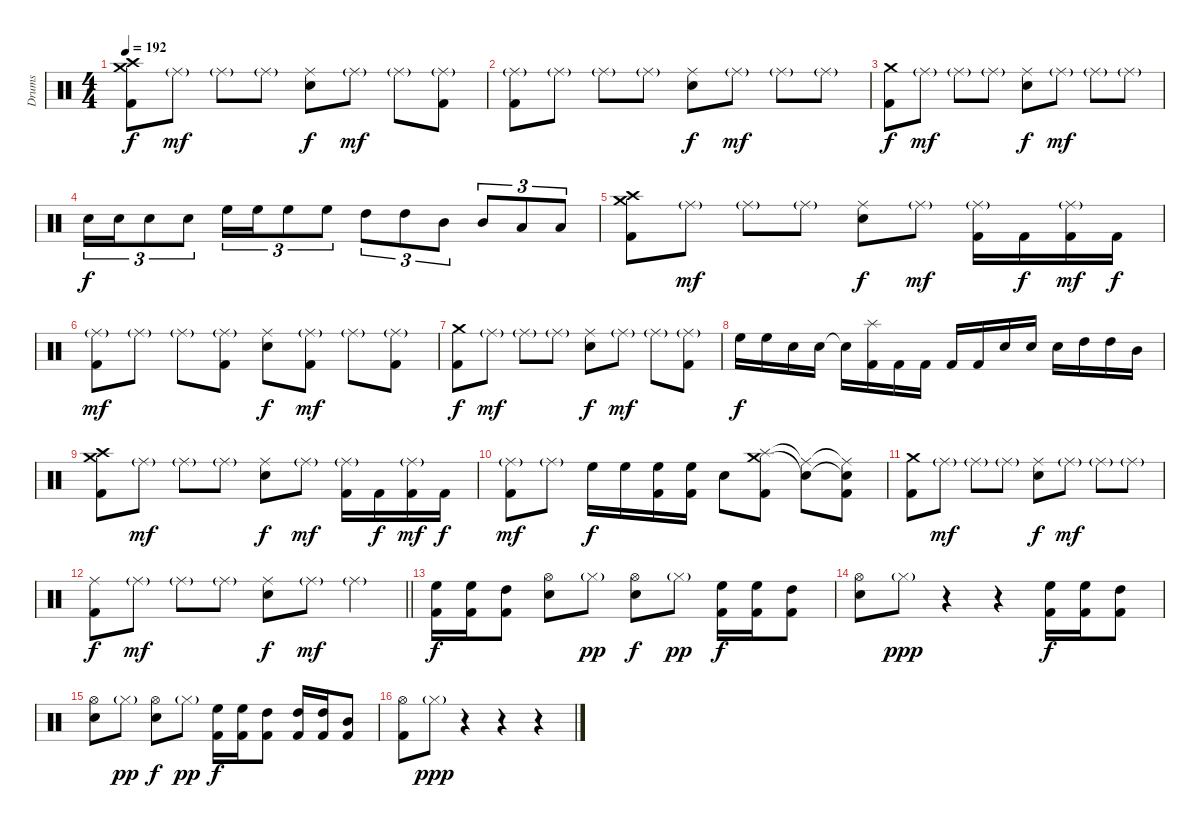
\track ("Drums" "Drums") {instrument percussion}
\staff {score}
\articulation defaults
\ts (4 4)
\tempo 192
\clef neutral
\ks c
("Crash high (hit)" "Crash medium (hit)" "Kick (hit) 2").8{dy f} "Ride (middle)"{g}.8{dy mf} "Ride (middle)"{g}.8 "Ride (middle)"{g}.8 ("Ride (middle)" "Electric Snare (hit)").8{dy f} "Ride (middle)"{g}.8{dy mf} "Ride (middle)"{g}.8 ("Ride (middle)"{g} "Kick (hit) 2").8 |
("Ride (middle)"{g} "Kick (hit) 2").8 "Ride (middle)"{g}.8 "Ride (middle)"{g}.8 "Ride (middle)"{g}.8 ("Ride (middle)" "Electric Snare (hit)").8{dy f} "Ride (middle)"{g}.8{dy mf} "Ride (middle)"{g}.8 "Ride (middle)"{g}.8 |
("Crash medium (hit)" "Kick (hit) 2").8{dy f} "Ride (middle)"{g}.8{dy mf} "Ride (middle)"{g}.8 "Ride (middle)"{g}.8 ("Ride (middle)" "Electric Snare (hit)").8{dy f} "Ride (middle)"{g}.8{dy mf} "Ride (middle)"{g}.8 "Ride (middle)"{g}.8 |
"Electric Snare (hit)".16{tu (3 2) dy f} "Electric Snare (hit)".16{tu (3 2)} "Electric Snare (hit)".8{tu (3 2)} "Electric Snare (hit)".8{tu (3 2)} "High Floor Tom (hit)".16{tu (3 2)} "High Floor Tom (hit)".16{tu (3 2)} "High Floor Tom (hit)".8{tu (3 2)} "High Floor Tom (hit)".8{tu (3 2)} "High Tom (hit)".8{tu (3 2)} "High Tom (hit)".8{tu (3 2)} "Mid Tom (hit)".8{tu (3 2)} "Mid Tom (hit)".8{tu (3 2)} "Low Tom (hit)".8{tu (3 2)} "Low Tom (hit)".8{tu (3 2)} |
("Crash high (hit)" "Crash medium (hit)" "Kick (hit) 2").8 "Ride (middle)"{g}.8{dy mf} "Ride (middle)"{g}.8 "Ride (middle)"{g}.8 ("Ride (middle)" "Electric Snare (hit)").8{dy f} "Ride (middle)"{g}.8{dy mf} ("Ride (middle)"{g} "Kick (hit) 2").16 "Kick (hit) 2".16{dy f} ("Ride (middle)"{g} "Kick (hit) 2").16{dy mf} "Kick (hit) 2".16{dy f} |
("Ride (middle)"{g} "Kick (hit) 2").8{dy mf} "Ride (middle)"{g}.8 "Ride (middle)"{g}.8 ("Ride (middle)"{g} "Kick (hit) 2").8 ("Ride (middle)" "Electric Snare (hit)").8{dy f} ("Ride (middle)"{g} "Kick (hit) 2").8{dy mf} "Ride (middle)"{g}.8 ("Ride (middle)"{g} "Kick (hit) 2").8 |
("Crash medium (hit)" "Kick (hit) 2").8{dy f} "Ride (middle)"{g}.8{dy mf} "Ride (middle)"{g}.8 "Ride (middle)"{g}.8 ("Ride (middle)" "Electric Snare (hit)").8{dy f} "Ride (middle)"{g}.8{dy mf} "Ride (middle)"{g}.8 ("Ride (middle)"{g} "Kick (hit) 2").8 |
"High Floor Tom (hit)".16{dy f} "High Floor Tom (hit)".16 "Electric Snare (hit)".16 "Electric Snare (hit)".16 "Snare (hit)"{t}.16 ("Splash (hit)" "Kick (hit) 2").16 "Kick (hit) 2".16 "Kick (hit) 2".16 "Kick (hit) 2".16 "Kick (hit) 2".16 "Electric Snare (hit)".16 "Electric Snare (hit)".16 "Electric Snare (hit)".16 "High Tom (hit)".16 "High Tom (hit)".16 "Mid Tom (hit)".16 |
("Crash high (hit)" "Crash medium (hit)" "Kick (hit) 2").8 "Ride (middle)"{g}.8{dy mf} "Ride (middle)"{g}.8 "Ride (middle)"{g}.8 ("Ride (middle)" "Electric Snare (hit)").8{dy f} "Ride (middle)"{g}.8{dy mf} ("Ride (middle)"{g} "Kick (hit) 2").16 "Kick (hit) 2".16{dy f} ("Ride (middle)"{g} "Kick (hit) 2").16{dy mf} "Kick (hit) 2".16{dy f} |
("Ride (middle)"{g} "Kick (hit) 2").8{dy mf} "Ride (middle)"{g}.8 "High Floor Tom (hit)".16{dy f} "High Floor Tom (hit)".16 ("High Floor Tom (hit)" "Kick (hit) 2").16 ("High Floor Tom (hit)" "Kick (hit) 2").16 "Electric Snare (hit)".8 ("Crash medium (hit)" "Splash (hit)" "Kick (hit) 2").8 ("Snare (hit)"{t} "Ride (middle)"{t}).8 ("Snare (hit)"{t} "Ride (middle)"{t} "Kick (hit) 2").8 |
("Crash medium (hit)" "Kick (hit) 2").8 "Ride (middle)"{g}.8{dy mf} "Ride (middle)"{g}.8 "Ride (middle)"{g}.8 ("Ride (middle)" "Electric Snare (hit)").8{dy f} "Ride (middle)"{g}.8{dy mf} "Ride (middle)"{g}.8 "Ride (middle)"{g}.8 |
\barLineRight lightlight
("Ride (middle)" "Kick (hit) 2").8{dy f} "Ride (middle)"{g}.8{dy mf} "Ride (middle)"{g}.8 "Ride (middle)"{g}.8 ("Ride (middle)" "Electric Snare (hit)").8{dy f} "Ride (middle)"{g}.8{dy mf} "Ride (middle)"{g}.4 |
("High Floor Tom (hit)" "Kick (hit) 2").16{dy f} ("High Floor Tom (hit)" "Kick (hit) 2").16 ("High Tom (hit)" "Kick (hit) 2").8 ("Hi-Hat (open)" "Electric Snare (hit)").8 "Hi-Hat (closed)"{g}.8{dy pp} ("Hi-Hat (open)" "Electric Snare (hit)").8{dy f} "Hi-Hat (closed)"{g}.8{dy pp} ("High Floor Tom (hit)" "Kick (hit) 2").16{dy f} ("High Floor Tom (hit)" "Kick (hit) 2").16 ("High Tom (hit)" "Kick (hit) 2").8 |
("Hi-Hat (open)" "Electric Snare (hit)").8 "Hi-Hat (closed)"{g}.8{dy ppp} r.4 r.4 ("High Floor Tom (hit)" "Kick (hit) 2").16{dy f} ("High Floor Tom (hit)" "Kick (hit) 2").16 ("High Tom (hit)" "Kick (hit) 2").8 |
("Hi-Hat (open)" "Electric Snare (hit)").8 "Hi-Hat (closed)"{g}.8{dy pp} ("Hi-Hat (open)" "Electric Snare (hit)").8{dy f} "Hi-Hat (closed)"{g}.8{dy pp} ("High Floor Tom (hit)" "Kick (hit) 2").16{dy f} ("High Floor Tom (hit)" "Kick (hit) 2").16 ("High Tom (hit)" "Kick (hit) 2").8 ("High Tom (hit)" "Kick (hit) 2").16 ("High Tom (hit)" "Kick (hit) 2").16 ("Mid Tom (hit)" "Kick (hit) 2").8 |
("Hi-Hat (open)" "Kick (hit) 2").8 "Hi-Hat (closed)"{g}.8{dy ppp} r.4 r.4 r.4
